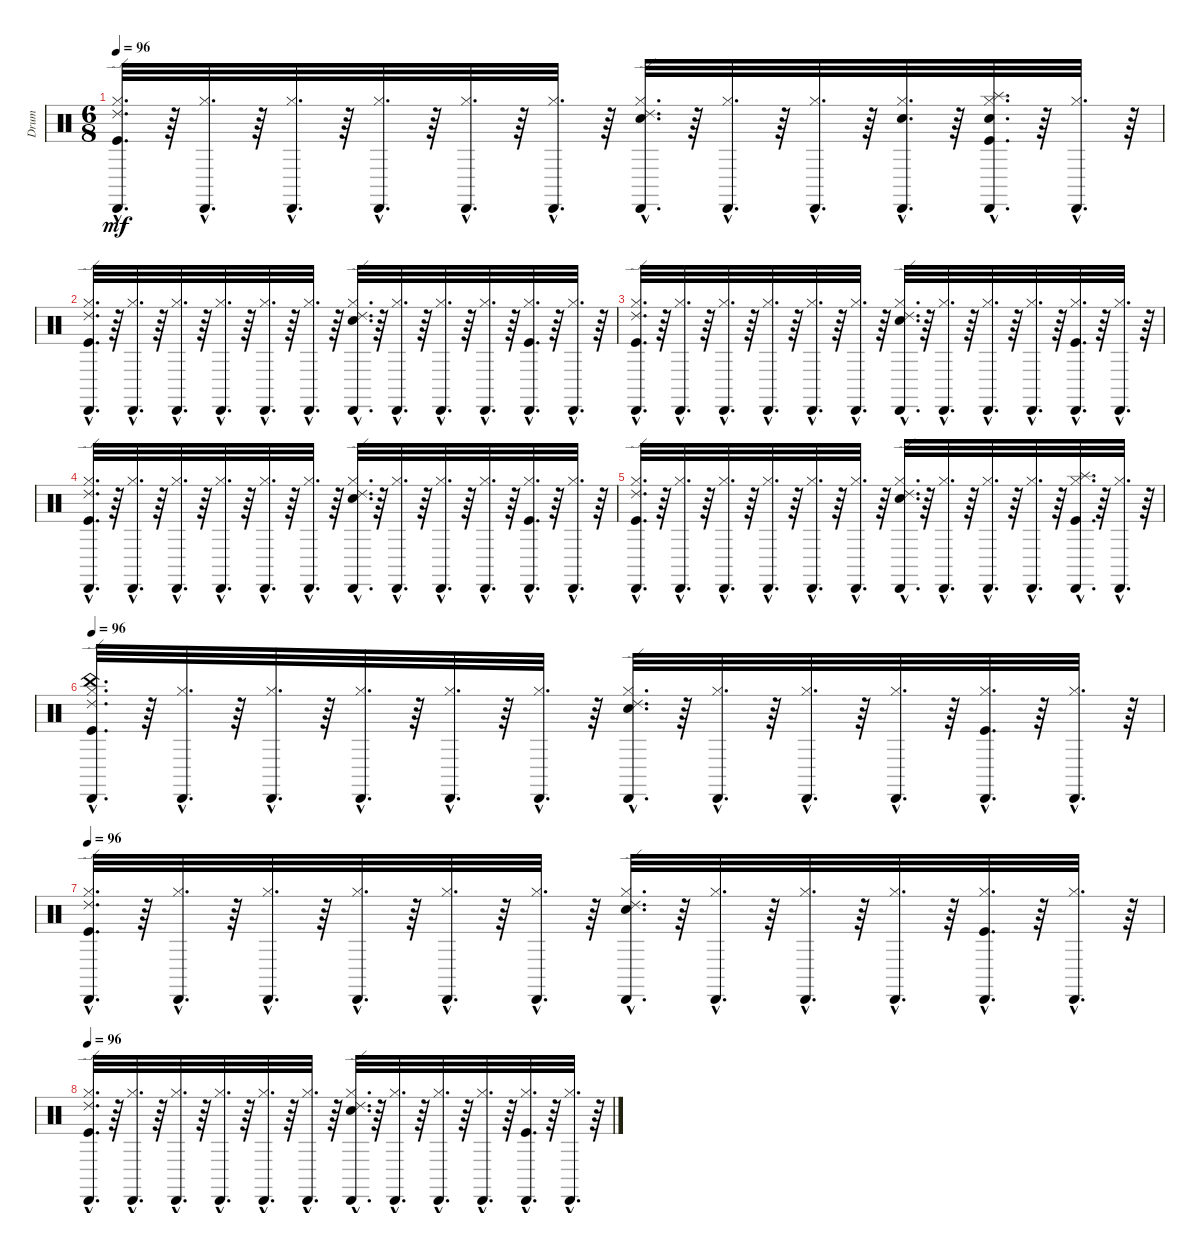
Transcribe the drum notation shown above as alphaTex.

\track ("Drum" "Drum") {instrument percussion}
\staff {score}
\articulation defaults
\ts (6 8)
\tempo 96
\clef neutral
\ks c
("Ride (edge) 2"{hac} "Cabasa (hit)"{hac} "Hi-Hat (closed)"{hac} "Kick (hit)"{hac}).32{d dy mf} r.64 ("Cabasa (hit)"{hac} "Hi-Hat (closed)"{hac}).32{d} r.64 ("Cabasa (hit)"{hac} "Hi-Hat (closed)"{hac}).32{d} r.64 ("Cabasa (hit)"{hac} "Hi-Hat (closed)"{hac}).32{d} r.64 ("Cabasa (hit)"{hac} "Hi-Hat (closed)"{hac}).32{d} r.64 ("Cabasa (hit)"{hac} "Hi-Hat (closed)"{hac}).32{d} r.64 ("Ride (edge) 2"{hac} "Cabasa (hit)"{hac} "Hi-Hat (closed)"{hac} "Snare (hit) 2"{hac}).32{d} r.64 ("Cabasa (hit)"{hac} "Hi-Hat (closed)"{hac}).32{d} r.64 ("Cabasa (hit)"{hac} "Hi-Hat (closed)"{hac}).32{d} r.64 ("Snare (hit) 2"{hac} "Cabasa (hit)"{hac} "Hi-Hat (closed)"{hac}).32{d} r.64 ("Snare (hit) 2"{hac} "Cabasa (hit)"{hac} "Hi-Hat (closed)"{hac} "Splash (hit)"{hac} "Kick (hit)"{hac}).32{d} r.64 ("Cabasa (hit)"{hac} "Hi-Hat (closed)"{hac}).32{d} r.64 |
("Hi-Hat (closed)"{hac} "Kick (hit)"{hac} "Cabasa (hit)"{hac} "Ride (edge) 2"{hac}).32{d} r.64 ("Hi-Hat (closed)"{hac} "Cabasa (hit)"{hac}).32{d} r.64 ("Hi-Hat (closed)"{hac} "Cabasa (hit)"{hac}).32{d} r.64 ("Hi-Hat (closed)"{hac} "Cabasa (hit)"{hac}).32{d} r.64 ("Hi-Hat (closed)"{hac} "Cabasa (hit)"{hac}).32{d} r.64 ("Hi-Hat (closed)"{hac} "Cabasa (hit)"{hac}).32{d} r.64 ("Hi-Hat (closed)"{hac} "Snare (hit) 2"{hac} "Cabasa (hit)"{hac} "Ride (edge) 2"{hac}).32{d} r.64 ("Hi-Hat (closed)"{hac} "Cabasa (hit)"{hac}).32{d} r.64 ("Hi-Hat (closed)"{hac} "Cabasa (hit)"{hac}).32{d} r.64 ("Hi-Hat (closed)"{hac} "Cabasa (hit)"{hac}).32{d} r.64 ("Hi-Hat (closed)"{hac} "Cabasa (hit)"{hac} "Kick (hit)"{hac}).32{d} r.64 ("Hi-Hat (closed)"{hac} "Cabasa (hit)"{hac}).32{d} r.64 |
("Kick (hit)"{hac} "Hi-Hat (closed)"{hac} "Cabasa (hit)"{hac} "Ride (edge) 2"{hac}).32{d} r.64 ("Hi-Hat (closed)"{hac} "Cabasa (hit)"{hac}).32{d} r.64 ("Hi-Hat (closed)"{hac} "Cabasa (hit)"{hac}).32{d} r.64 ("Hi-Hat (closed)"{hac} "Cabasa (hit)"{hac}).32{d} r.64 ("Hi-Hat (closed)"{hac} "Cabasa (hit)"{hac}).32{d} r.64 ("Hi-Hat (closed)"{hac} "Cabasa (hit)"{hac}).32{d} r.64 ("Snare (hit) 2"{hac} "Hi-Hat (closed)"{hac} "Cabasa (hit)"{hac} "Ride (edge) 2"{hac}).32{d} r.64 ("Hi-Hat (closed)"{hac} "Cabasa (hit)"{hac}).32{d} r.64 ("Hi-Hat (closed)"{hac} "Cabasa (hit)"{hac}).32{d} r.64 ("Hi-Hat (closed)"{hac} "Cabasa (hit)"{hac}).32{d} r.64 ("Hi-Hat (closed)"{hac} "Cabasa (hit)"{hac} "Kick (hit)"{hac}).32{d} r.64 ("Hi-Hat (closed)"{hac} "Cabasa (hit)"{hac}).32{d} r.64 |
("Ride (edge) 2"{hac} "Cabasa (hit)"{hac} "Hi-Hat (closed)"{hac} "Kick (hit)"{hac}).32{d} r.64 ("Cabasa (hit)"{hac} "Hi-Hat (closed)"{hac}).32{d} r.64 ("Cabasa (hit)"{hac} "Hi-Hat (closed)"{hac}).32{d} r.64 ("Cabasa (hit)"{hac} "Hi-Hat (closed)"{hac}).32{d} r.64 ("Cabasa (hit)"{hac} "Hi-Hat (closed)"{hac}).32{d} r.64 ("Cabasa (hit)"{hac} "Hi-Hat (closed)"{hac}).32{d} r.64 ("Ride (edge) 2"{hac} "Cabasa (hit)"{hac} "Hi-Hat (closed)"{hac} "Snare (hit) 2"{hac}).32{d} r.64 ("Cabasa (hit)"{hac} "Hi-Hat (closed)"{hac}).32{d} r.64 ("Cabasa (hit)"{hac} "Hi-Hat (closed)"{hac}).32{d} r.64 ("Cabasa (hit)"{hac} "Hi-Hat (closed)"{hac}).32{d} r.64 ("Cabasa (hit)"{hac} "Hi-Hat (closed)"{hac} "Kick (hit)"{hac}).32{d} r.64 ("Cabasa (hit)"{hac} "Hi-Hat (closed)"{hac}).32{d} r.64 |
("Ride (edge) 2"{hac} "Cabasa (hit)"{hac} "Hi-Hat (closed)"{hac} "Kick (hit)"{hac}).32{d} r.64 ("Cabasa (hit)"{hac} "Hi-Hat (closed)"{hac}).32{d} r.64 ("Cabasa (hit)"{hac} "Hi-Hat (closed)"{hac}).32{d} r.64 ("Cabasa (hit)"{hac} "Hi-Hat (closed)"{hac}).32{d} r.64 ("Cabasa (hit)"{hac} "Hi-Hat (closed)"{hac}).32{d} r.64 ("Cabasa (hit)"{hac} "Hi-Hat (closed)"{hac}).32{d} r.64 ("Ride (edge) 2"{hac} "Cabasa (hit)"{hac} "Hi-Hat (closed)"{hac} "Snare (hit) 2"{hac}).32{d} r.64 ("Cabasa (hit)"{hac} "Hi-Hat (closed)"{hac}).32{d} r.64 ("Cabasa (hit)"{hac} "Hi-Hat (closed)"{hac}).32{d} r.64 ("Cabasa (hit)"{hac} "Hi-Hat (closed)"{hac}).32{d} r.64 ("Cabasa (hit)"{hac} "Hi-Hat (closed)"{hac} "Splash (hit)"{hac} "Kick (hit)"{hac}).32{d} r.64 ("Cabasa (hit)"{hac} "Hi-Hat (closed)"{hac}).32{d} r.64 |
\tempo 96
("Hi-Hat (closed)"{hac} "Kick (hit)"{hac} "China (hit)"{hac} "Cabasa (hit)"{hac} "Ride (edge) 2"{hac}).32{d} r.64 ("Hi-Hat (closed)"{hac} "Cabasa (hit)"{hac}).32{d} r.64 ("Hi-Hat (closed)"{hac} "Cabasa (hit)"{hac}).32{d} r.64 ("Hi-Hat (closed)"{hac} "Cabasa (hit)"{hac}).32{d} r.64 ("Hi-Hat (closed)"{hac} "Cabasa (hit)"{hac}).32{d} r.64 ("Hi-Hat (closed)"{hac} "Cabasa (hit)"{hac}).32{d} r.64 ("Hi-Hat (closed)"{hac} "Snare (hit) 2"{hac} "Cabasa (hit)"{hac} "Ride (edge) 2"{hac}).32{d} r.64 ("Hi-Hat (closed)"{hac} "Cabasa (hit)"{hac}).32{d} r.64 ("Hi-Hat (closed)"{hac} "Cabasa (hit)"{hac}).32{d} r.64 ("Hi-Hat (closed)"{hac} "Cabasa (hit)"{hac}).32{d} r.64 ("Hi-Hat (closed)"{hac} "Cabasa (hit)"{hac} "Kick (hit)"{hac}).32{d} r.64 ("Hi-Hat (closed)"{hac} "Cabasa (hit)"{hac}).32{d} r.64 |
\tempo 96
("Kick (hit)"{hac} "Hi-Hat (closed)"{hac} "Cabasa (hit)"{hac} "Ride (edge) 2"{hac}).32{d} r.64 ("Hi-Hat (closed)"{hac} "Cabasa (hit)"{hac}).32{d} r.64 ("Hi-Hat (closed)"{hac} "Cabasa (hit)"{hac}).32{d} r.64 ("Hi-Hat (closed)"{hac} "Cabasa (hit)"{hac}).32{d} r.64 ("Hi-Hat (closed)"{hac} "Cabasa (hit)"{hac}).32{d} r.64 ("Hi-Hat (closed)"{hac} "Cabasa (hit)"{hac}).32{d} r.64 ("Snare (hit) 2"{hac} "Hi-Hat (closed)"{hac} "Cabasa (hit)"{hac} "Ride (edge) 2"{hac}).32{d} r.64 ("Hi-Hat (closed)"{hac} "Cabasa (hit)"{hac}).32{d} r.64 ("Hi-Hat (closed)"{hac} "Cabasa (hit)"{hac}).32{d} r.64 ("Hi-Hat (closed)"{hac} "Cabasa (hit)"{hac}).32{d} r.64 ("Hi-Hat (closed)"{hac} "Cabasa (hit)"{hac} "Kick (hit)"{hac}).32{d} r.64 ("Hi-Hat (closed)"{hac} "Cabasa (hit)"{hac}).32{d} r.64 |
\tempo 96
("Ride (edge) 2"{hac} "Cabasa (hit)"{hac} "Hi-Hat (closed)"{hac} "Kick (hit)"{hac}).32{d} r.64 ("Cabasa (hit)"{hac} "Hi-Hat (closed)"{hac}).32{d} r.64 ("Cabasa (hit)"{hac} "Hi-Hat (closed)"{hac}).32{d} r.64 ("Cabasa (hit)"{hac} "Hi-Hat (closed)"{hac}).32{d} r.64 ("Cabasa (hit)"{hac} "Hi-Hat (closed)"{hac}).32{d} r.64 ("Cabasa (hit)"{hac} "Hi-Hat (closed)"{hac}).32{d} r.64 ("Ride (edge) 2"{hac} "Cabasa (hit)"{hac} "Hi-Hat (closed)"{hac} "Snare (hit) 2"{hac}).32{d} r.64 ("Cabasa (hit)"{hac} "Hi-Hat (closed)"{hac}).32{d} r.64 ("Cabasa (hit)"{hac} "Hi-Hat (closed)"{hac}).32{d} r.64 ("Cabasa (hit)"{hac} "Hi-Hat (closed)"{hac}).32{d} r.64 ("Cabasa (hit)"{hac} "Hi-Hat (closed)"{hac} "Kick (hit)"{hac}).32{d} r.64 ("Cabasa (hit)"{hac} "Hi-Hat (closed)"{hac}).32{d} r.64
